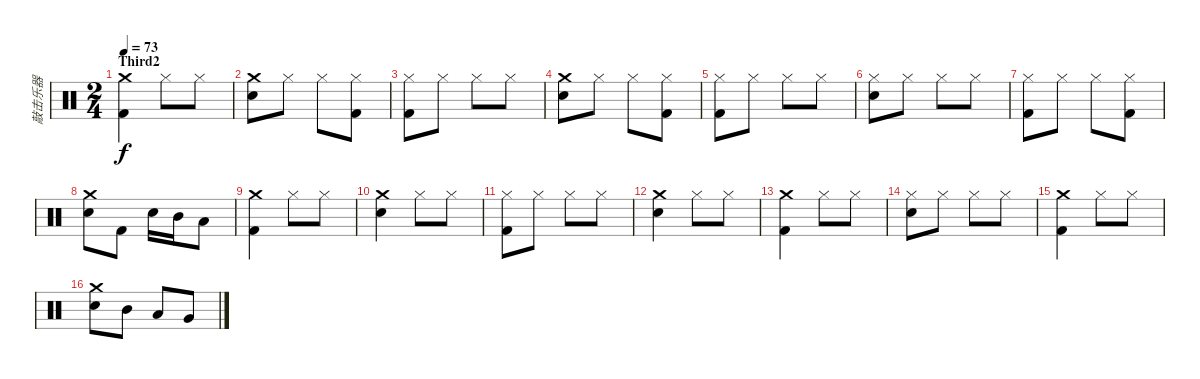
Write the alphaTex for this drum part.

\track ("敲击乐器" "敲击乐器") {instrument percussion}
\staff {score}
\articulation defaults
\ts (2 4)
\section ("" "Third2")
\tempo 73
\clef neutral
\ks c
("Crash medium (hit)" "Kick (hit) 2").4{dy f} "Hi-Hat (closed)".8 "Hi-Hat (closed)".8 |
("Crash medium (hit)" "Electric Snare (hit)").8 "Hi-Hat (closed)".8 "Hi-Hat (closed)".8 ("Hi-Hat (closed)" "Kick (hit) 2").8 |
("Hi-Hat (closed)" "Kick (hit) 2").8 "Hi-Hat (closed)".8 "Hi-Hat (closed)".8 "Hi-Hat (closed)".8 |
("Crash medium (hit)" "Electric Snare (hit)").8 "Hi-Hat (closed)".8 "Hi-Hat (closed)".8 ("Hi-Hat (closed)" "Kick (hit) 2").8 |
("Hi-Hat (closed)" "Kick (hit) 2").8 "Hi-Hat (closed)".8 "Hi-Hat (closed)".8 "Hi-Hat (closed)".8 |
("Hi-Hat (closed)" "Electric Snare (hit)").8 "Hi-Hat (closed)".8 "Hi-Hat (closed)".8 "Hi-Hat (closed)".8 |
("Hi-Hat (closed)" "Kick (hit) 2").8 "Hi-Hat (closed)".8 "Hi-Hat (closed)".8 ("Hi-Hat (closed)" "Kick (hit) 2").8 |
("Crash medium (hit)" "Electric Snare (hit)").8 "Kick (hit) 2".8 "Electric Snare (hit)".16 "Mid Tom (hit)".16 "Low Tom (hit)".8 |
("Crash medium (hit)" "Kick (hit) 2").4 "Hi-Hat (closed)".8 "Hi-Hat (closed)".8 |
("Crash medium (hit)" "Electric Snare (hit)").4 "Hi-Hat (closed)".8 "Hi-Hat (closed)".8 |
("Hi-Hat (closed)" "Kick (hit) 2").8 "Hi-Hat (closed)".8 "Hi-Hat (closed)".8 "Hi-Hat (closed)".8 |
("Crash medium (hit)" "Electric Snare (hit)").4 "Hi-Hat (closed)".8 "Hi-Hat (closed)".8 |
("Crash medium (hit)" "Kick (hit) 2").4 "Hi-Hat (closed)".8 "Hi-Hat (closed)".8 |
("Hi-Hat (closed)" "Electric Snare (hit)").8 "Hi-Hat (closed)".8 "Hi-Hat (closed)".8 "Hi-Hat (closed)".8 |
("Crash medium (hit)" "Kick (hit) 2").4 "Hi-Hat (closed)".8 "Hi-Hat (closed)".8 |
("Crash medium (hit)" "Electric Snare (hit)").8 "Mid Tom (hit)".8 "Low Tom (hit)".8 "Very Low Tom (hit)".8
